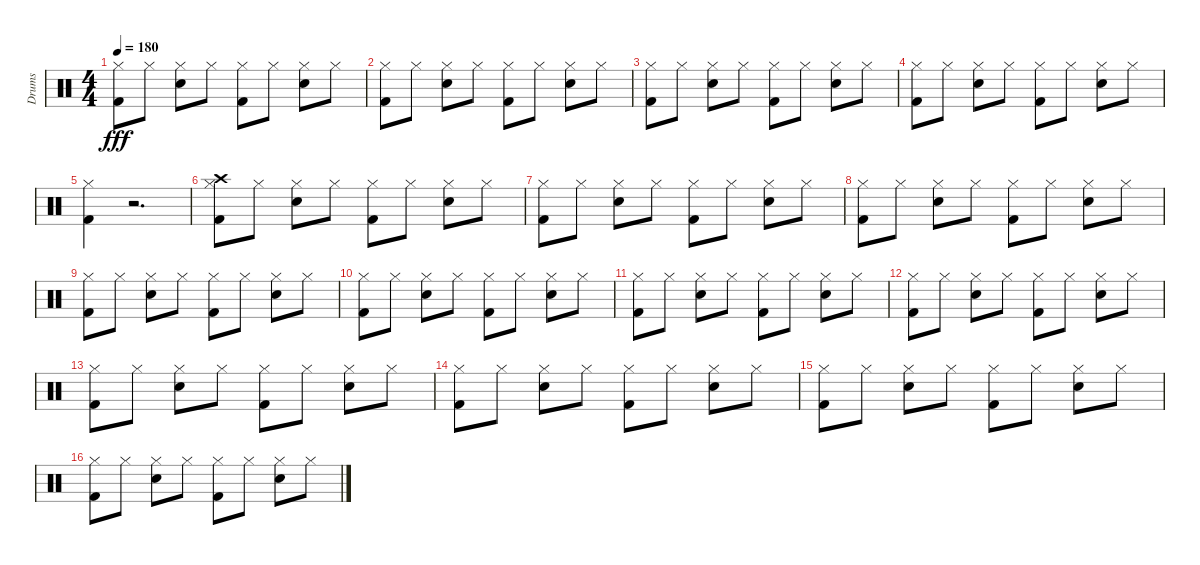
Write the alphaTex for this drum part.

\track ("Drums" "Drums") {instrument percussion}
\staff {score}
\articulation defaults
\ts (4 4)
\tempo 180
\clef neutral
\ks c
("Hi-Hat (closed)" "Kick (hit) 2").8{dy fff} "Hi-Hat (closed)".8 ("Hi-Hat (closed)" "Snare (hit) 2").8 "Hi-Hat (closed)".8 ("Hi-Hat (closed)" "Kick (hit) 2").8 "Hi-Hat (closed)".8 ("Hi-Hat (closed)" "Snare (hit) 2").8 "Hi-Hat (closed)".8 |
("Hi-Hat (closed)" "Kick (hit) 2").8 "Hi-Hat (closed)".8 ("Hi-Hat (closed)" "Snare (hit) 2").8 "Hi-Hat (closed)".8 ("Hi-Hat (closed)" "Kick (hit) 2").8 "Hi-Hat (closed)".8 ("Hi-Hat (closed)" "Snare (hit) 2").8 "Hi-Hat (closed)".8 |
("Hi-Hat (closed)" "Kick (hit) 2").8 "Hi-Hat (closed)".8 ("Hi-Hat (closed)" "Snare (hit) 2").8 "Hi-Hat (closed)".8 ("Hi-Hat (closed)" "Kick (hit) 2").8 "Hi-Hat (closed)".8 ("Hi-Hat (closed)" "Snare (hit) 2").8 "Hi-Hat (closed)".8 |
("Hi-Hat (closed)" "Kick (hit) 2").8 "Hi-Hat (closed)".8 ("Hi-Hat (closed)" "Snare (hit) 2").8 "Hi-Hat (closed)".8 ("Hi-Hat (closed)" "Kick (hit) 2").8 "Hi-Hat (closed)".8 ("Hi-Hat (closed)" "Snare (hit) 2").8 "Hi-Hat (closed)".8 |
("Hi-Hat (closed)" "Kick (hit) 2").4 r.2{d} |
("Crash high (hit)" "Hi-Hat (closed)" "Kick (hit) 2").8 "Hi-Hat (closed)".8 ("Hi-Hat (closed)" "Snare (hit) 2").8 "Hi-Hat (closed)".8 ("Hi-Hat (closed)" "Kick (hit) 2").8 "Hi-Hat (closed)".8 ("Hi-Hat (closed)" "Snare (hit) 2").8 "Hi-Hat (closed)".8 |
("Hi-Hat (closed)" "Kick (hit) 2").8 "Hi-Hat (closed)".8 ("Hi-Hat (closed)" "Snare (hit) 2").8 "Hi-Hat (closed)".8 ("Hi-Hat (closed)" "Kick (hit) 2").8 "Hi-Hat (closed)".8 ("Hi-Hat (closed)" "Snare (hit) 2").8 "Hi-Hat (closed)".8 |
("Hi-Hat (closed)" "Kick (hit) 2").8 "Hi-Hat (closed)".8 ("Hi-Hat (closed)" "Snare (hit) 2").8 "Hi-Hat (closed)".8 ("Hi-Hat (closed)" "Kick (hit) 2").8 "Hi-Hat (closed)".8 ("Hi-Hat (closed)" "Snare (hit) 2").8 "Hi-Hat (closed)".8 |
("Hi-Hat (closed)" "Kick (hit) 2").8 "Hi-Hat (closed)".8 ("Hi-Hat (closed)" "Snare (hit) 2").8 "Hi-Hat (closed)".8 ("Hi-Hat (closed)" "Kick (hit) 2").8 "Hi-Hat (closed)".8 ("Hi-Hat (closed)" "Snare (hit) 2").8 "Hi-Hat (closed)".8 |
("Hi-Hat (closed)" "Kick (hit) 2").8 "Hi-Hat (closed)".8 ("Hi-Hat (closed)" "Snare (hit) 2").8 "Hi-Hat (closed)".8 ("Hi-Hat (closed)" "Kick (hit) 2").8 "Hi-Hat (closed)".8 ("Hi-Hat (closed)" "Snare (hit) 2").8 "Hi-Hat (closed)".8 |
("Hi-Hat (closed)" "Kick (hit) 2").8 "Hi-Hat (closed)".8 ("Hi-Hat (closed)" "Snare (hit) 2").8 "Hi-Hat (closed)".8 ("Hi-Hat (closed)" "Kick (hit) 2").8 "Hi-Hat (closed)".8 ("Hi-Hat (closed)" "Snare (hit) 2").8 "Hi-Hat (closed)".8 |
("Hi-Hat (closed)" "Kick (hit) 2").8 "Hi-Hat (closed)".8 ("Hi-Hat (closed)" "Snare (hit) 2").8 "Hi-Hat (closed)".8 ("Hi-Hat (closed)" "Kick (hit) 2").8 "Hi-Hat (closed)".8 ("Hi-Hat (closed)" "Snare (hit) 2").8 "Hi-Hat (closed)".8 |
("Hi-Hat (closed)" "Kick (hit) 2").8 "Hi-Hat (closed)".8 ("Hi-Hat (closed)" "Snare (hit) 2").8 "Hi-Hat (closed)".8 ("Hi-Hat (closed)" "Kick (hit) 2").8 "Hi-Hat (closed)".8 ("Hi-Hat (closed)" "Snare (hit) 2").8 "Hi-Hat (closed)".8 |
("Hi-Hat (closed)" "Kick (hit) 2").8 "Hi-Hat (closed)".8 ("Hi-Hat (closed)" "Snare (hit) 2").8 "Hi-Hat (closed)".8 ("Hi-Hat (closed)" "Kick (hit) 2").8 "Hi-Hat (closed)".8 ("Hi-Hat (closed)" "Snare (hit) 2").8 "Hi-Hat (closed)".8 |
("Hi-Hat (closed)" "Kick (hit) 2").8 "Hi-Hat (closed)".8 ("Hi-Hat (closed)" "Snare (hit) 2").8 "Hi-Hat (closed)".8 ("Hi-Hat (closed)" "Kick (hit) 2").8 "Hi-Hat (closed)".8 ("Hi-Hat (closed)" "Snare (hit) 2").8 "Hi-Hat (closed)".8 |
("Hi-Hat (closed)" "Kick (hit) 2").8 "Hi-Hat (closed)".8 ("Hi-Hat (closed)" "Snare (hit) 2").8 "Hi-Hat (closed)".8 ("Hi-Hat (closed)" "Kick (hit) 2").8 "Hi-Hat (closed)".8 ("Hi-Hat (closed)" "Snare (hit) 2").8 "Hi-Hat (closed)".8
